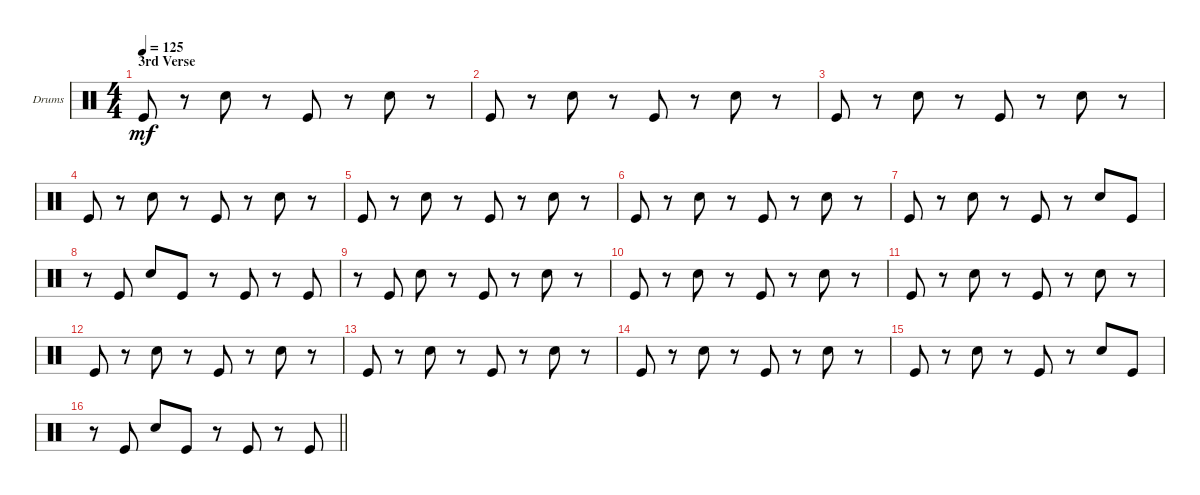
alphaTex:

\bracketExtendMode groupsimilarinstruments
\firstSystemTrackNameOrientation horizontal
\otherSystemsTrackNameOrientation horizontal
\track ("Nick Menza" "Drums") {instrument percussion}
\staff {score}
\articulation defaults
\ts (4 4)
\section ("" "3rd Verse")
\tempo 125
\clef neutral
\ks c "Kick (hit)".8{dy mf}
r.8 "Snare (hit) 2".8 r.8 "Kick (hit)".8 r.8 "Snare (hit) 2".8 r.8 |
"Kick (hit)".8 r.8 "Snare (hit) 2".8 r.8 "Kick (hit)".8 r.8 "Snare (hit) 2".8 r.8 |
"Kick (hit)".8 r.8 "Snare (hit) 2".8 r.8 "Kick (hit)".8 r.8 "Snare (hit) 2".8 r.8 |
"Kick (hit)".8 r.8 "Snare (hit) 2".8 r.8 "Kick (hit)".8 r.8 "Snare (hit) 2".8 r.8 |
"Kick (hit)".8 r.8 "Snare (hit) 2".8 r.8 "Kick (hit)".8 r.8 "Snare (hit) 2".8 r.8 |
"Kick (hit)".8 r.8 "Snare (hit) 2".8 r.8 "Kick (hit)".8 r.8 "Snare (hit) 2".8 r.8 |
"Kick (hit)".8 r.8 "Snare (hit) 2".8 r.8 "Kick (hit)".8 r.8 "Snare (hit) 2".8 "Kick (hit)".8 |
r.8 "Kick (hit)".8 "Snare (hit) 2".8 "Kick (hit)".8 r.8 "Kick (hit)".8 r.8 "Kick (hit)".8 |
r.8 "Kick (hit)".8 "Snare (hit) 2".8 r.8 "Kick (hit)".8 r.8 "Snare (hit) 2".8 r.8 |
"Kick (hit)".8 r.8 "Snare (hit) 2".8 r.8 "Kick (hit)".8 r.8 "Snare (hit) 2".8 r.8 |
"Kick (hit)".8 r.8 "Snare (hit) 2".8 r.8 "Kick (hit)".8 r.8 "Snare (hit) 2".8 r.8 |
"Kick (hit)".8 r.8 "Snare (hit) 2".8 r.8 "Kick (hit)".8 r.8 "Snare (hit) 2".8 r.8 |
"Kick (hit)".8 r.8 "Snare (hit) 2".8 r.8 "Kick (hit)".8 r.8 "Snare (hit) 2".8 r.8 |
"Kick (hit)".8 r.8 "Snare (hit) 2".8 r.8 "Kick (hit)".8 r.8 "Snare (hit) 2".8 r.8 |
"Kick (hit)".8 r.8 "Snare (hit) 2".8 r.8 "Kick (hit)".8 r.8 "Snare (hit) 2".8 "Kick (hit)".8 |
\barLineRight lightlight
r.8 "Kick (hit)".8 "Snare (hit) 2".8 "Kick (hit)".8 r.8 "Kick (hit)".8 r.8 "Kick (hit)".8
